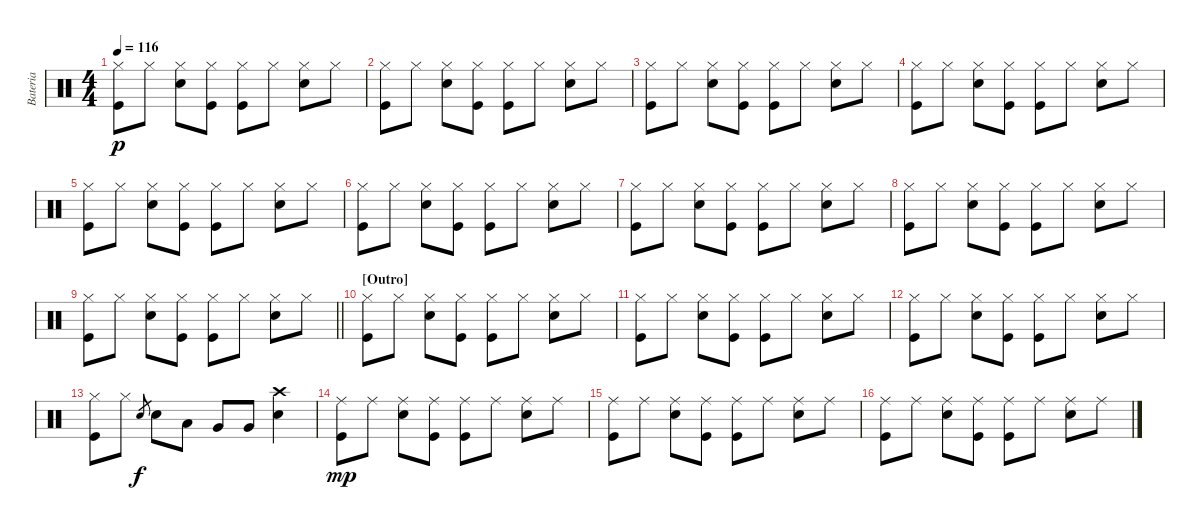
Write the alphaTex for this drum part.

\track ("Bateria" "Bateria") {instrument percussion}
\staff {score}
\articulation defaults
\ts (4 4)
\tempo 116
\clef neutral
\ks c
("Hi-Hat (closed)" "Kick (hit)").8{dy p} "Hi-Hat (closed)".8 ("Hi-Hat (closed)" "Snare (hit) 2").8 ("Hi-Hat (closed)" "Kick (hit)").8 ("Hi-Hat (closed)" "Kick (hit)").8 "Hi-Hat (closed)".8 ("Hi-Hat (closed)" "Snare (hit) 2").8 "Hi-Hat (closed)".8 |
("Hi-Hat (closed)" "Kick (hit)").8 "Hi-Hat (closed)".8 ("Hi-Hat (closed)" "Snare (hit) 2").8 ("Hi-Hat (closed)" "Kick (hit)").8 ("Hi-Hat (closed)" "Kick (hit)").8 "Hi-Hat (closed)".8 ("Hi-Hat (closed)" "Snare (hit) 2").8 "Hi-Hat (closed)".8 |
("Hi-Hat (closed)" "Kick (hit)").8 "Hi-Hat (closed)".8 ("Hi-Hat (closed)" "Snare (hit) 2").8 ("Hi-Hat (closed)" "Kick (hit)").8 ("Hi-Hat (closed)" "Kick (hit)").8 "Hi-Hat (closed)".8 ("Hi-Hat (closed)" "Snare (hit) 2").8 "Hi-Hat (closed)".8 |
("Hi-Hat (closed)" "Kick (hit)").8 "Hi-Hat (closed)".8 ("Hi-Hat (closed)" "Snare (hit) 2").8 ("Hi-Hat (closed)" "Kick (hit)").8 ("Hi-Hat (closed)" "Kick (hit)").8 "Hi-Hat (closed)".8 ("Hi-Hat (closed)" "Snare (hit) 2").8 "Hi-Hat (closed)".8 |
("Hi-Hat (closed)" "Kick (hit)").8 "Hi-Hat (closed)".8 ("Hi-Hat (closed)" "Snare (hit) 2").8 ("Hi-Hat (closed)" "Kick (hit)").8 ("Hi-Hat (closed)" "Kick (hit)").8 "Hi-Hat (closed)".8 ("Hi-Hat (closed)" "Snare (hit) 2").8 "Hi-Hat (closed)".8 |
("Hi-Hat (closed)" "Kick (hit)").8 "Hi-Hat (closed)".8 ("Hi-Hat (closed)" "Snare (hit) 2").8 ("Hi-Hat (closed)" "Kick (hit)").8 ("Hi-Hat (closed)" "Kick (hit)").8 "Hi-Hat (closed)".8 ("Hi-Hat (closed)" "Snare (hit) 2").8 "Hi-Hat (closed)".8 |
("Hi-Hat (closed)" "Kick (hit)").8 "Hi-Hat (closed)".8 ("Hi-Hat (closed)" "Snare (hit) 2").8 ("Hi-Hat (closed)" "Kick (hit)").8 ("Hi-Hat (closed)" "Kick (hit)").8 "Hi-Hat (closed)".8 ("Hi-Hat (closed)" "Snare (hit) 2").8 "Hi-Hat (closed)".8 |
("Hi-Hat (closed)" "Kick (hit)").8 "Hi-Hat (closed)".8 ("Hi-Hat (closed)" "Snare (hit) 2").8 ("Hi-Hat (closed)" "Kick (hit)").8 ("Hi-Hat (closed)" "Kick (hit)").8 "Hi-Hat (closed)".8 ("Hi-Hat (closed)" "Snare (hit) 2").8 "Hi-Hat (closed)".8 |
\barLineRight lightlight
("Hi-Hat (closed)" "Kick (hit)").8 "Hi-Hat (closed)".8 ("Hi-Hat (closed)" "Snare (hit) 2").8 ("Hi-Hat (closed)" "Kick (hit)").8 ("Hi-Hat (closed)" "Kick (hit)").8 "Hi-Hat (closed)".8 ("Hi-Hat (closed)" "Snare (hit) 2").8 "Hi-Hat (closed)".8 |
\section ("" "[Outro]")
("Hi-Hat (closed)" "Kick (hit)").8 "Hi-Hat (closed)".8 ("Hi-Hat (closed)" "Snare (hit) 2").8 ("Hi-Hat (closed)" "Kick (hit)").8 ("Hi-Hat (closed)" "Kick (hit)").8 "Hi-Hat (closed)".8 ("Hi-Hat (closed)" "Snare (hit) 2").8 "Hi-Hat (closed)".8 |
("Hi-Hat (closed)" "Kick (hit)").8 "Hi-Hat (closed)".8 ("Hi-Hat (closed)" "Snare (hit) 2").8 ("Hi-Hat (closed)" "Kick (hit)").8 ("Hi-Hat (closed)" "Kick (hit)").8 "Hi-Hat (closed)".8 ("Hi-Hat (closed)" "Snare (hit) 2").8 "Hi-Hat (closed)".8 |
("Hi-Hat (closed)" "Kick (hit)").8 "Hi-Hat (closed)".8 ("Hi-Hat (closed)" "Snare (hit) 2").8 ("Hi-Hat (closed)" "Kick (hit)").8 ("Hi-Hat (closed)" "Kick (hit)").8 "Hi-Hat (closed)".8 ("Hi-Hat (closed)" "Snare (hit) 2").8 "Hi-Hat (closed)".8 |
("Hi-Hat (closed)" "Kick (hit)").8 "Hi-Hat (closed)".8 "Snare (hit) 2".8{gr dy f} "Snare (hit) 2".8 "Low Tom (hit)".8 "Very Low Tom (hit)".8 "Very Low Tom (hit)".8 ("Snare (hit) 2" "Crash high (hit)").4 |
("Ride (middle)" "Kick (hit)").8{dy mp} "Ride (middle)".8 ("Ride (middle)" "Snare (hit) 2").8 ("Ride (middle)" "Kick (hit)").8 ("Ride (middle)" "Kick (hit)").8 "Ride (middle)".8 ("Ride (middle)" "Snare (hit) 2").8 "Ride (middle)".8 |
("Ride (middle)" "Kick (hit)").8 "Ride (middle)".8 ("Ride (middle)" "Snare (hit) 2").8 ("Ride (middle)" "Kick (hit)").8 ("Ride (middle)" "Kick (hit)").8 "Ride (middle)".8 ("Ride (middle)" "Snare (hit) 2").8 "Ride (middle)".8 |
("Ride (middle)" "Kick (hit)").8 "Ride (middle)".8 ("Ride (middle)" "Snare (hit) 2").8 ("Ride (middle)" "Kick (hit)").8 ("Ride (middle)" "Kick (hit)").8 "Ride (middle)".8 ("Ride (middle)" "Snare (hit) 2").8 "Ride (middle)".8
